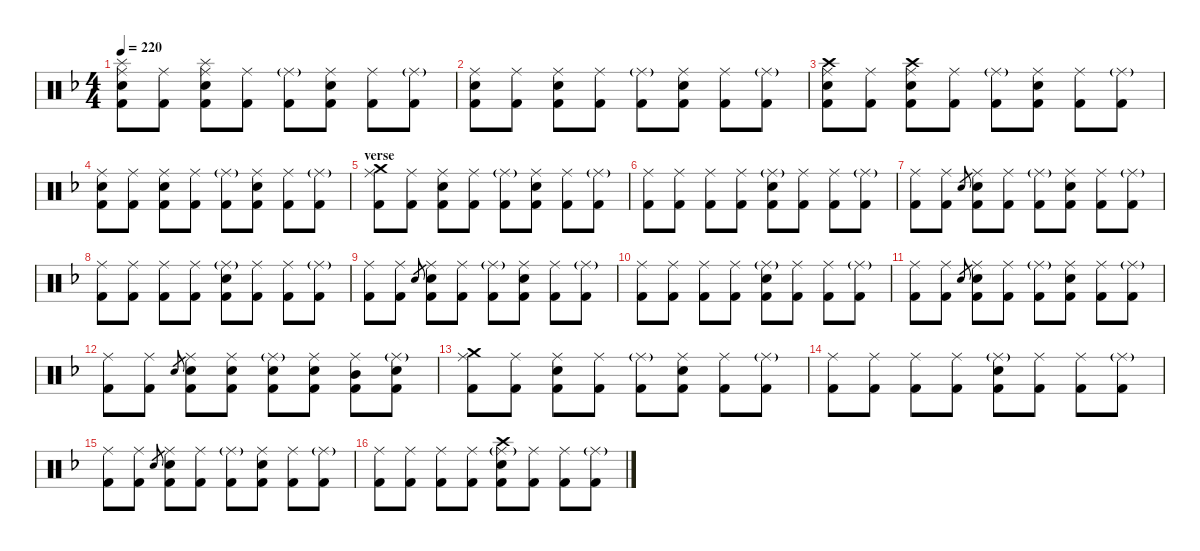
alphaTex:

\hideDynamics
\bracketExtendMode nobrackets
\singleTrackTrackNamePolicy hidden
\multiTrackTrackNamePolicy hidden
\firstSystemTrackNameMode fullname
\firstSystemTrackNameOrientation horizontal
\otherSystemsTrackNameOrientation horizontal
\track ("Drumkit" "Drums") {instrument percussion}
\staff {score}
\articulation defaults
\ts (4 4)
\tempo 220
\clef neutral
\ks dminor
("Splash (hit)"{acc forcenatural} "Ride (middle)"{acc forcenatural} "Snare (hit) 2"{acc forcenatural} "Kick (hit) 2"{acc forcenatural}).8{dy f beam Down} ("Ride (middle)"{acc forcenatural} "Kick (hit) 2"{acc forcenatural}).8{dy mf beam Down} ("Splash (hit)"{acc forcenatural} "Ride (middle)"{acc forcenatural} "Snare (hit) 2"{acc forcenatural} "Kick (hit) 2"{acc forcenatural}).8{dy f beam Down} ("Ride (middle)"{acc forcenatural} "Kick (hit) 2"{acc forcenatural}).8{dy mf beam Down} ("Ride (middle)"{g acc forcenatural} "Kick (hit) 2"{acc forcenatural}).8{dy f beam Down} ("Ride (middle)"{acc forcenatural} "Snare (hit) 2"{acc forcenatural} "Kick (hit) 2"{acc forcenatural}).8{dy mf beam Down} ("Ride (middle)"{acc forcenatural} "Kick (hit) 2"{acc forcenatural}).8{beam Down} ("Ride (middle)"{g acc forcenatural} "Kick (hit) 2"{acc forcenatural}).8{dy f beam Down} |
("Ride (middle)"{acc forcenatural} "Snare (hit) 2"{acc forcenatural} "Kick (hit) 2"{acc forcenatural}).8{dy mf beam Down} ("Ride (middle)"{acc forcenatural} "Kick (hit) 2"{acc forcenatural}).8{beam Down} ("Ride (middle)"{acc forcenatural} "Snare (hit) 2"{acc forcenatural} "Kick (hit) 2"{acc forcenatural}).8{beam Down} ("Ride (middle)"{acc forcenatural} "Kick (hit) 2"{acc forcenatural}).8{beam Down} ("Ride (middle)"{g acc forcenatural} "Kick (hit) 2"{acc forcenatural}).8{dy f beam Down} ("Ride (middle)"{acc forcenatural} "Snare (hit) 2"{acc forcenatural} "Kick (hit) 2"{acc forcenatural}).8{dy mf beam Down} ("Ride (middle)"{acc forcenatural} "Kick (hit) 2"{acc forcenatural}).8{beam Down} ("Ride (middle)"{g acc forcenatural} "Kick (hit) 2"{acc forcenatural}).8{dy f beam Down} |
("Crash high (hit)"{acc forcenatural} "Ride (middle)"{acc forcenatural} "Snare (hit) 2"{acc forcenatural} "Kick (hit) 2"{acc forcenatural}).8{beam Down} ("Ride (middle)"{acc forcenatural} "Kick (hit) 2"{acc forcenatural}).8{dy mf beam Down} ("Crash high (hit)"{acc forcenatural} "Ride (middle)"{acc forcenatural} "Snare (hit) 2"{acc forcenatural} "Kick (hit) 2"{acc forcenatural}).8{dy f beam Down} ("Ride (middle)"{acc forcenatural} "Kick (hit) 2"{acc forcenatural}).8{dy mf beam Down} ("Ride (middle)"{g acc forcenatural} "Kick (hit) 2"{acc forcenatural}).8{dy f beam Down} ("Ride (middle)"{acc forcenatural} "Snare (hit) 2"{acc forcenatural} "Kick (hit) 2"{acc forcenatural}).8{dy mf beam Down} ("Ride (middle)"{acc forcenatural} "Kick (hit) 2"{acc forcenatural}).8{beam Down} ("Ride (middle)"{g acc forcenatural} "Kick (hit) 2"{acc forcenatural}).8{dy f beam Down} |
("Ride (middle)"{acc forcenatural} "Snare (hit) 2"{acc forcenatural} "Kick (hit) 2"{acc forcenatural}).8{dy mf beam Down} ("Ride (middle)"{acc forcenatural} "Kick (hit) 2"{acc forcenatural}).8{beam Down} ("Ride (middle)"{acc forcenatural} "Snare (hit) 2"{acc forcenatural} "Kick (hit) 2"{acc forcenatural}).8{beam Down} ("Ride (middle)"{acc forcenatural} "Kick (hit) 2"{acc forcenatural}).8{beam Down} ("Ride (middle)"{g acc forcenatural} "Kick (hit) 2"{acc forcenatural}).8{dy f beam Down} ("Ride (middle)"{acc forcenatural} "Snare (hit) 2"{acc forcenatural} "Kick (hit) 2"{acc forcenatural}).8{dy mf beam Down} ("Ride (middle)"{acc forcenatural} "Kick (hit) 2"{acc forcenatural}).8{beam Down} ("Ride (middle)"{g acc forcenatural} "Kick (hit) 2"{acc forcenatural}).8{dy f beam Down} |
\section ("" "verse")
("Crash medium (hit)"{acc forcenatural} "Ride (middle)"{acc forcenatural} "Kick (hit) 2"{acc forcenatural}).8{beam Down} ("Ride (middle)"{acc forcenatural} "Kick (hit) 2"{acc forcenatural}).8{dy mf beam Down} ("Ride (middle)"{acc forcenatural} "Snare (hit) 2"{acc forcenatural} "Kick (hit) 2"{acc forcenatural}).8{beam Down} ("Ride (middle)"{acc forcenatural} "Kick (hit) 2"{acc forcenatural}).8{beam Down} ("Ride (middle)"{g acc forcenatural} "Kick (hit) 2"{acc forcenatural}).8{dy f beam Down} ("Ride (middle)"{acc forcenatural} "Snare (hit) 2"{acc forcenatural} "Kick (hit) 2"{acc forcenatural}).8{dy mf beam Down} ("Ride (middle)"{acc forcenatural} "Kick (hit) 2"{acc forcenatural}).8{beam Down} ("Ride (middle)"{g acc forcenatural} "Kick (hit) 2"{acc forcenatural}).8{dy f beam Down} |
("Ride (middle)"{acc forcenatural} "Kick (hit) 2"{acc forcenatural}).8{dy mf beam Down} ("Ride (middle)"{acc forcenatural} "Kick (hit) 2"{acc forcenatural}).8{beam Down} ("Ride (middle)"{acc forcenatural} "Kick (hit) 2"{acc forcenatural}).8{beam Down} ("Ride (middle)"{acc forcenatural} "Kick (hit) 2"{acc forcenatural}).8{beam Down} ("Ride (middle)"{g acc forcenatural} "Snare (hit) 2"{acc forcenatural} "Kick (hit) 2"{acc forcenatural}).8{dy f beam Down} ("Ride (middle)"{acc forcenatural} "Kick (hit) 2"{acc forcenatural}).8{dy mf beam Down} ("Ride (middle)"{acc forcenatural} "Kick (hit) 2"{acc forcenatural}).8{beam Down} ("Ride (middle)"{g acc forcenatural} "Kick (hit) 2"{acc forcenatural}).8{dy f beam Down} |
("Ride (middle)"{acc forcenatural} "Kick (hit) 2"{acc forcenatural}).8{dy mf beam Down} ("Ride (middle)"{acc forcenatural} "Kick (hit) 2"{acc forcenatural}).8{beam Down} "Snare (hit) 2"{acc forcenatural}.8{gr dy mp beam Up} ("Ride (middle)"{acc forcenatural} "Snare (hit) 2"{acc forcenatural} "Kick (hit) 2"{acc forcenatural}).8{dy mf beam Down} ("Ride (middle)"{acc forcenatural} "Kick (hit) 2"{acc forcenatural}).8{beam Down} ("Ride (middle)"{g acc forcenatural} "Kick (hit) 2"{acc forcenatural}).8{dy f beam Down} ("Ride (middle)"{acc forcenatural} "Snare (hit) 2"{acc forcenatural} "Kick (hit) 2"{acc forcenatural}).8{dy mf beam Down} ("Ride (middle)"{acc forcenatural} "Kick (hit) 2"{acc forcenatural}).8{beam Down} ("Ride (middle)"{g acc forcenatural} "Kick (hit) 2"{acc forcenatural}).8{dy f beam Down} |
("Ride (middle)"{acc forcenatural} "Kick (hit) 2"{acc forcenatural}).8{dy mf beam Down} ("Ride (middle)"{acc forcenatural} "Kick (hit) 2"{acc forcenatural}).8{beam Down} ("Ride (middle)"{acc forcenatural} "Kick (hit) 2"{acc forcenatural}).8{beam Down} ("Ride (middle)"{acc forcenatural} "Kick (hit) 2"{acc forcenatural}).8{beam Down} ("Ride (middle)"{g acc forcenatural} "Snare (hit) 2"{acc forcenatural} "Kick (hit) 2"{acc forcenatural}).8{dy f beam Down} ("Ride (middle)"{acc forcenatural} "Kick (hit) 2"{acc forcenatural}).8{dy mf beam Down} ("Ride (middle)"{acc forcenatural} "Kick (hit) 2"{acc forcenatural}).8{beam Down} ("Ride (middle)"{g acc forcenatural} "Kick (hit) 2"{acc forcenatural}).8{dy f beam Down} |
("Ride (middle)"{acc forcenatural} "Kick (hit) 2"{acc forcenatural}).8{dy mf beam Down} ("Ride (middle)"{acc forcenatural} "Kick (hit) 2"{acc forcenatural}).8{beam Down} "Snare (hit) 2"{acc forcenatural}.8{gr dy mp beam Up} ("Ride (middle)"{acc forcenatural} "Snare (hit) 2"{acc forcenatural} "Kick (hit) 2"{acc forcenatural}).8{dy mf beam Down} ("Ride (middle)"{acc forcenatural} "Kick (hit) 2"{acc forcenatural}).8{beam Down} ("Ride (middle)"{g acc forcenatural} "Kick (hit) 2"{acc forcenatural}).8{dy f beam Down} ("Ride (middle)"{acc forcenatural} "Snare (hit) 2"{acc forcenatural} "Kick (hit) 2"{acc forcenatural}).8{dy mf beam Down} ("Ride (middle)"{acc forcenatural} "Kick (hit) 2"{acc forcenatural}).8{beam Down} ("Ride (middle)"{g acc forcenatural} "Kick (hit) 2"{acc forcenatural}).8{dy f beam Down} |
("Ride (middle)"{acc forcenatural} "Kick (hit) 2"{acc forcenatural}).8{dy mf beam Down} ("Ride (middle)"{acc forcenatural} "Kick (hit) 2"{acc forcenatural}).8{beam Down} ("Ride (middle)"{acc forcenatural} "Kick (hit) 2"{acc forcenatural}).8{beam Down} ("Ride (middle)"{acc forcenatural} "Kick (hit) 2"{acc forcenatural}).8{beam Down} ("Ride (middle)"{g acc forcenatural} "Snare (hit) 2"{acc forcenatural} "Kick (hit) 2"{acc forcenatural}).8{dy f beam Down} ("Ride (middle)"{acc forcenatural} "Kick (hit) 2"{acc forcenatural}).8{dy mf beam Down} ("Ride (middle)"{acc forcenatural} "Kick (hit) 2"{acc forcenatural}).8{beam Down} ("Ride (middle)"{g acc forcenatural} "Kick (hit) 2"{acc forcenatural}).8{dy f beam Down} |
("Ride (middle)"{acc forcenatural} "Kick (hit) 2"{acc forcenatural}).8{dy mf beam Down} ("Ride (middle)"{acc forcenatural} "Kick (hit) 2"{acc forcenatural}).8{beam Down} "Snare (hit) 2"{acc forcenatural}.8{gr dy mp beam Up} ("Ride (middle)"{acc forcenatural} "Snare (hit) 2"{acc forcenatural} "Kick (hit) 2"{acc forcenatural}).8{dy mf beam Down} ("Ride (middle)"{acc forcenatural} "Kick (hit) 2"{acc forcenatural}).8{beam Down} ("Ride (middle)"{g acc forcenatural} "Kick (hit) 2"{acc forcenatural}).8{dy f beam Down} ("Ride (middle)"{acc forcenatural} "Snare (hit) 2"{acc forcenatural} "Kick (hit) 2"{acc forcenatural}).8{dy mf beam Down} ("Ride (middle)"{acc forcenatural} "Kick (hit) 2"{acc forcenatural}).8{beam Down} ("Ride (middle)"{g acc forcenatural} "Kick (hit) 2"{acc forcenatural}).8{dy f beam Down} |
("Ride (middle)"{acc forcenatural} "Kick (hit) 2"{acc forcenatural}).8{dy mf beam Down} ("Ride (middle)"{acc forcenatural} "Kick (hit) 2"{acc forcenatural}).8{beam Down} "Snare (hit) 2"{acc forcenatural}.8{gr dy mp beam Up} ("Ride (middle)"{acc forcenatural} "Snare (hit) 2"{acc forcenatural} "Kick (hit) 2"{acc forcenatural}).8{dy mf beam Down} ("Ride (middle)"{acc forcenatural} "Snare (hit) 2"{acc forcenatural} "Kick (hit) 2"{acc forcenatural}).8{beam Down} ("Ride (middle)"{g acc forcenatural} "Snare (hit) 2"{acc forcenatural} "Kick (hit) 2"{acc forcenatural}).8{dy f beam Down} ("Ride (middle)"{acc forcenatural} "Snare (hit) 2"{acc forcenatural} "Kick (hit) 2"{acc forcenatural}).8{dy mf beam Down} ("Ride (middle)"{acc forcenatural} "Mid Tom (hit)"{acc forcenatural} "Kick (hit) 2"{acc forcenatural}).8{beam Down} ("Ride (middle)"{g acc forcenatural} "Snare (hit) 2"{acc forcenatural} "Kick (hit) 2"{acc forcenatural}).8{dy f beam Down} |
("Crash medium (hit)"{acc forcenatural} "Ride (middle)"{acc forcenatural} "Kick (hit) 2"{acc forcenatural}).8{beam Down} ("Ride (middle)"{acc forcenatural} "Kick (hit) 2"{acc forcenatural}).8{dy mf beam Down} ("Ride (middle)"{acc forcenatural} "Snare (hit) 2"{acc forcenatural} "Kick (hit) 2"{acc forcenatural}).8{beam Down} ("Ride (middle)"{acc forcenatural} "Kick (hit) 2"{acc forcenatural}).8{beam Down} ("Ride (middle)"{g acc forcenatural} "Kick (hit) 2"{acc forcenatural}).8{dy f beam Down} ("Ride (middle)"{acc forcenatural} "Snare (hit) 2"{acc forcenatural} "Kick (hit) 2"{acc forcenatural}).8{dy mf beam Down} ("Ride (middle)"{acc forcenatural} "Kick (hit) 2"{acc forcenatural}).8{beam Down} ("Ride (middle)"{g acc forcenatural} "Kick (hit) 2"{acc forcenatural}).8{dy f beam Down} |
("Ride (middle)"{acc forcenatural} "Kick (hit) 2"{acc forcenatural}).8{dy mf beam Down} ("Ride (middle)"{acc forcenatural} "Kick (hit) 2"{acc forcenatural}).8{beam Down} ("Ride (middle)"{acc forcenatural} "Kick (hit) 2"{acc forcenatural}).8{beam Down} ("Ride (middle)"{acc forcenatural} "Kick (hit) 2"{acc forcenatural}).8{beam Down} ("Ride (middle)"{g acc forcenatural} "Snare (hit) 2"{acc forcenatural} "Kick (hit) 2"{acc forcenatural}).8{dy f beam Down} ("Ride (middle)"{acc forcenatural} "Kick (hit) 2"{acc forcenatural}).8{dy mf beam Down} ("Ride (middle)"{acc forcenatural} "Kick (hit) 2"{acc forcenatural}).8{beam Down} ("Ride (middle)"{g acc forcenatural} "Kick (hit) 2"{acc forcenatural}).8{dy f beam Down} |
("Ride (middle)"{acc forcenatural} "Kick (hit) 2"{acc forcenatural}).8{dy mf beam Down} ("Ride (middle)"{acc forcenatural} "Kick (hit) 2"{acc forcenatural}).8{beam Down} "Snare (hit) 2"{acc forcenatural}.8{gr dy mp beam Up} ("Ride (middle)"{acc forcenatural} "Snare (hit) 2"{acc forcenatural} "Kick (hit) 2"{acc forcenatural}).8{dy mf beam Down} ("Ride (middle)"{acc forcenatural} "Kick (hit) 2"{acc forcenatural}).8{beam Down} ("Ride (middle)"{g acc forcenatural} "Kick (hit) 2"{acc forcenatural}).8{dy f beam Down} ("Ride (middle)"{acc forcenatural} "Snare (hit) 2"{acc forcenatural} "Kick (hit) 2"{acc forcenatural}).8{dy mf beam Down} ("Ride (middle)"{acc forcenatural} "Kick (hit) 2"{acc forcenatural}).8{beam Down} ("Ride (middle)"{g acc forcenatural} "Kick (hit) 2"{acc forcenatural}).8{dy f beam Down} |
("Ride (middle)"{acc forcenatural} "Kick (hit) 2"{acc forcenatural}).8{dy mf beam Down} ("Ride (middle)"{acc forcenatural} "Kick (hit) 2"{acc forcenatural}).8{beam Down} ("Ride (middle)"{acc forcenatural} "Kick (hit) 2"{acc forcenatural}).8{beam Down} ("Ride (middle)"{acc forcenatural} "Kick (hit) 2"{acc forcenatural}).8{beam Down} ("Crash high (hit)"{acc forcenatural} "Ride (middle)"{g acc forcenatural} "Snare (hit) 2"{acc forcenatural} "Kick (hit) 2"{acc forcenatural}).8{beam Down} ("Ride (middle)"{acc forcenatural} "Kick (hit) 2"{acc forcenatural}).8{beam Down} ("Ride (middle)"{acc forcenatural} "Kick (hit) 2"{acc forcenatural}).8{beam Down} ("Ride (middle)"{g acc forcenatural} "Kick (hit) 2"{acc forcenatural}).8{dy f beam Down}
